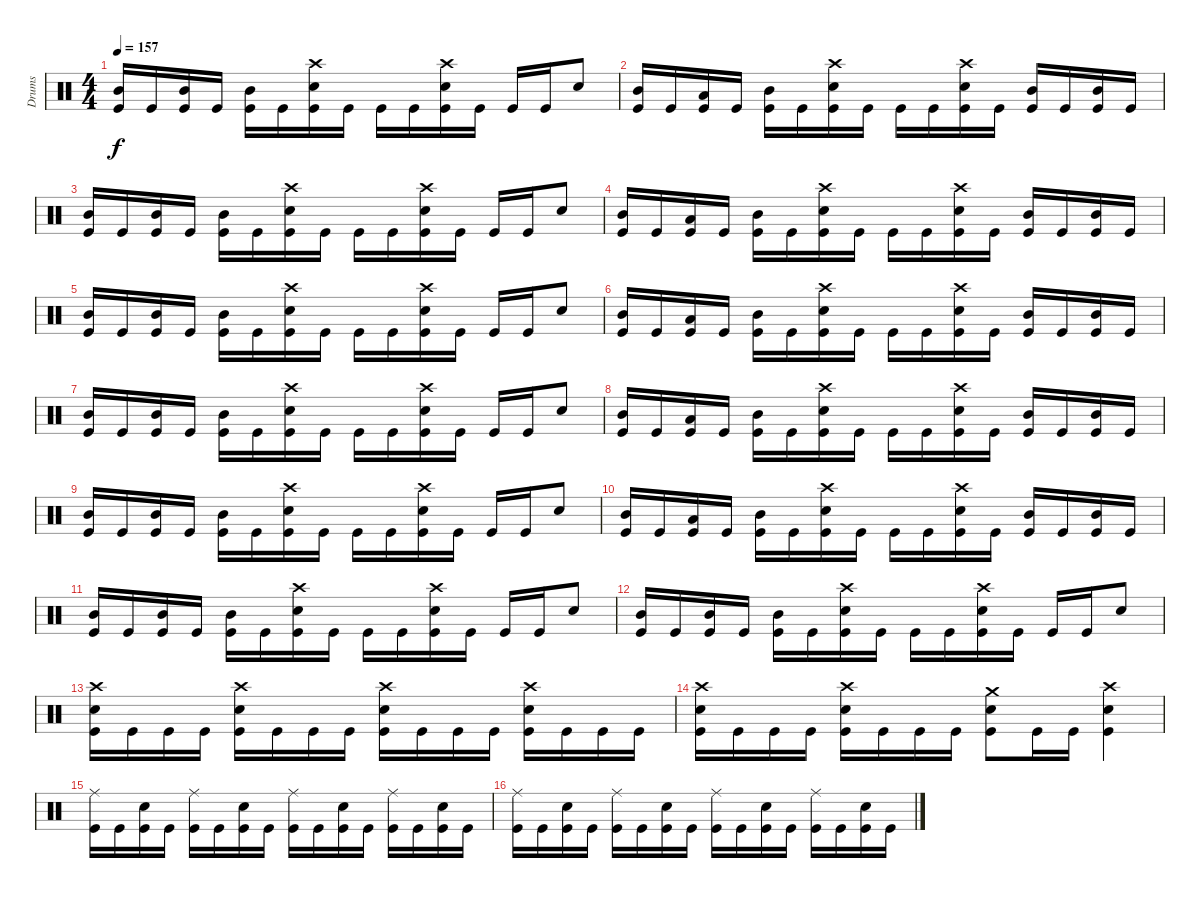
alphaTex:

\track ("Drums" "Drums") {instrument percussion}
\staff {score}
\articulation defaults
\ts (4 4)
\tempo 157
\clef neutral
\ks c
("Mid Tom (hit)" "Kick (hit)").16{dy f} "Kick (hit)".16 ("Mid Tom (hit)" "Kick (hit)").16 "Kick (hit)".16 ("Mid Tom (hit)" "Kick (hit)").16 "Kick (hit)".16 ("Snare (hit) 2" "Crash high (hit)" "Kick (hit)").16 "Kick (hit)".16 "Kick (hit)".16 "Kick (hit)".16 ("Snare (hit) 2" "Crash high (hit)" "Kick (hit)").16 "Kick (hit)".16 "Kick (hit)".16 "Kick (hit)".16 "Snare (hit) 2".8 |
("Mid Tom (hit)" "Kick (hit)").16 "Kick (hit)".16 ("Low Tom (hit)" "Kick (hit)").16 "Kick (hit)".16 ("Mid Tom (hit)" "Kick (hit)").16 "Kick (hit)".16 ("Snare (hit) 2" "Crash high (hit)" "Kick (hit)").16 "Kick (hit)".16 "Kick (hit)".16 "Kick (hit)".16 ("Snare (hit) 2" "Crash high (hit)" "Kick (hit)").16 "Kick (hit)".16 ("Mid Tom (hit)" "Kick (hit)").16 "Kick (hit)".16 ("Mid Tom (hit)" "Kick (hit)").16 "Kick (hit)".16 |
("Mid Tom (hit)" "Kick (hit)").16 "Kick (hit)".16 ("Mid Tom (hit)" "Kick (hit)").16 "Kick (hit)".16 ("Mid Tom (hit)" "Kick (hit)").16 "Kick (hit)".16 ("Snare (hit) 2" "Crash high (hit)" "Kick (hit)").16 "Kick (hit)".16 "Kick (hit)".16 "Kick (hit)".16 ("Snare (hit) 2" "Crash high (hit)" "Kick (hit)").16 "Kick (hit)".16 "Kick (hit)".16 "Kick (hit)".16 "Snare (hit) 2".8 |
("Mid Tom (hit)" "Kick (hit)").16 "Kick (hit)".16 ("Low Tom (hit)" "Kick (hit)").16 "Kick (hit)".16 ("Mid Tom (hit)" "Kick (hit)").16 "Kick (hit)".16 ("Snare (hit) 2" "Crash high (hit)" "Kick (hit)").16 "Kick (hit)".16 "Kick (hit)".16 "Kick (hit)".16 ("Snare (hit) 2" "Crash high (hit)" "Kick (hit)").16 "Kick (hit)".16 ("Mid Tom (hit)" "Kick (hit)").16 "Kick (hit)".16 ("Mid Tom (hit)" "Kick (hit)").16 "Kick (hit)".16 |
("Mid Tom (hit)" "Kick (hit)").16 "Kick (hit)".16 ("Mid Tom (hit)" "Kick (hit)").16 "Kick (hit)".16 ("Mid Tom (hit)" "Kick (hit)").16 "Kick (hit)".16 ("Snare (hit) 2" "Crash high (hit)" "Kick (hit)").16 "Kick (hit)".16 "Kick (hit)".16 "Kick (hit)".16 ("Snare (hit) 2" "Crash high (hit)" "Kick (hit)").16 "Kick (hit)".16 "Kick (hit)".16 "Kick (hit)".16 "Snare (hit) 2".8 |
("Mid Tom (hit)" "Kick (hit)").16 "Kick (hit)".16 ("Low Tom (hit)" "Kick (hit)").16 "Kick (hit)".16 ("Mid Tom (hit)" "Kick (hit)").16 "Kick (hit)".16 ("Snare (hit) 2" "Crash high (hit)" "Kick (hit)").16 "Kick (hit)".16 "Kick (hit)".16 "Kick (hit)".16 ("Snare (hit) 2" "Crash high (hit)" "Kick (hit)").16 "Kick (hit)".16 ("Mid Tom (hit)" "Kick (hit)").16 "Kick (hit)".16 ("Mid Tom (hit)" "Kick (hit)").16 "Kick (hit)".16 |
("Mid Tom (hit)" "Kick (hit)").16 "Kick (hit)".16 ("Mid Tom (hit)" "Kick (hit)").16 "Kick (hit)".16 ("Mid Tom (hit)" "Kick (hit)").16 "Kick (hit)".16 ("Snare (hit) 2" "Crash high (hit)" "Kick (hit)").16 "Kick (hit)".16 "Kick (hit)".16 "Kick (hit)".16 ("Snare (hit) 2" "Crash high (hit)" "Kick (hit)").16 "Kick (hit)".16 "Kick (hit)".16 "Kick (hit)".16 "Snare (hit) 2".8 |
("Mid Tom (hit)" "Kick (hit)").16 "Kick (hit)".16 ("Low Tom (hit)" "Kick (hit)").16 "Kick (hit)".16 ("Mid Tom (hit)" "Kick (hit)").16 "Kick (hit)".16 ("Snare (hit) 2" "Crash high (hit)" "Kick (hit)").16 "Kick (hit)".16 "Kick (hit)".16 "Kick (hit)".16 ("Snare (hit) 2" "Crash high (hit)" "Kick (hit)").16 "Kick (hit)".16 ("Mid Tom (hit)" "Kick (hit)").16 "Kick (hit)".16 ("Mid Tom (hit)" "Kick (hit)").16 "Kick (hit)".16 |
("Mid Tom (hit)" "Kick (hit)").16 "Kick (hit)".16 ("Mid Tom (hit)" "Kick (hit)").16 "Kick (hit)".16 ("Mid Tom (hit)" "Kick (hit)").16 "Kick (hit)".16 ("Snare (hit) 2" "Crash high (hit)" "Kick (hit)").16 "Kick (hit)".16 "Kick (hit)".16 "Kick (hit)".16 ("Snare (hit) 2" "Crash high (hit)" "Kick (hit)").16 "Kick (hit)".16 "Kick (hit)".16 "Kick (hit)".16 "Snare (hit) 2".8 |
("Mid Tom (hit)" "Kick (hit)").16 "Kick (hit)".16 ("Low Tom (hit)" "Kick (hit)").16 "Kick (hit)".16 ("Mid Tom (hit)" "Kick (hit)").16 "Kick (hit)".16 ("Snare (hit) 2" "Crash high (hit)" "Kick (hit)").16 "Kick (hit)".16 "Kick (hit)".16 "Kick (hit)".16 ("Snare (hit) 2" "Crash high (hit)" "Kick (hit)").16 "Kick (hit)".16 ("Mid Tom (hit)" "Kick (hit)").16 "Kick (hit)".16 ("Mid Tom (hit)" "Kick (hit)").16 "Kick (hit)".16 |
("Mid Tom (hit)" "Kick (hit)").16 "Kick (hit)".16 ("Mid Tom (hit)" "Kick (hit)").16 "Kick (hit)".16 ("Mid Tom (hit)" "Kick (hit)").16 "Kick (hit)".16 ("Snare (hit) 2" "Crash high (hit)" "Kick (hit)").16 "Kick (hit)".16 "Kick (hit)".16 "Kick (hit)".16 ("Snare (hit) 2" "Crash high (hit)" "Kick (hit)").16 "Kick (hit)".16 "Kick (hit)".16 "Kick (hit)".16 "Snare (hit) 2".8 |
("Mid Tom (hit)" "Kick (hit)").16 "Kick (hit)".16 ("Mid Tom (hit)" "Kick (hit)").16 "Kick (hit)".16 ("Mid Tom (hit)" "Kick (hit)").16 "Kick (hit)".16 ("Snare (hit) 2" "Crash high (hit)" "Kick (hit)").16 "Kick (hit)".16 "Kick (hit)".16 "Kick (hit)".16 ("Snare (hit) 2" "Crash high (hit)" "Kick (hit)").16 "Kick (hit)".16 "Kick (hit)".16 "Kick (hit)".16 "Snare (hit) 2".8 |
("Snare (hit) 2" "Crash high (hit)" "Kick (hit)").16 "Kick (hit)".16 "Kick (hit)".16 "Kick (hit)".16 ("Snare (hit) 2" "Crash high (hit)" "Kick (hit)").16 "Kick (hit)".16 "Kick (hit)".16 "Kick (hit)".16 ("Snare (hit) 2" "Crash high (hit)" "Kick (hit)").16 "Kick (hit)".16 "Kick (hit)".16 "Kick (hit)".16 ("Snare (hit) 2" "Crash high (hit)" "Kick (hit)").16 "Kick (hit)".16 "Kick (hit)".16 "Kick (hit)".16 |
("Snare (hit) 2" "Crash high (hit)" "Kick (hit)").16 "Kick (hit)".16 "Kick (hit)".16 "Kick (hit)".16 ("Snare (hit) 2" "Crash high (hit)" "Kick (hit)").16 "Kick (hit)".16 "Kick (hit)".16 "Kick (hit)".16 ("Snare (hit) 2" "Crash medium (hit)" "Kick (hit)").8 "Kick (hit)".16 "Kick (hit)".16 ("Snare (hit) 2" "Crash high (hit)" "Kick (hit)").4 |
("Ride (middle)" "Kick (hit)").16 "Kick (hit)".16 ("Snare (hit) 2" "Kick (hit)").16 "Kick (hit)".16 ("Ride (middle)" "Kick (hit)").16 "Kick (hit)".16 ("Snare (hit) 2" "Kick (hit)").16 "Kick (hit)".16 ("Ride (middle)" "Kick (hit)").16 "Kick (hit)".16 ("Snare (hit) 2" "Kick (hit)").16 "Kick (hit)".16 ("Ride (middle)" "Kick (hit)").16 "Kick (hit)".16 ("Snare (hit) 2" "Kick (hit)").16 "Kick (hit)".16 |
("Ride (middle)" "Kick (hit)").16 "Kick (hit)".16 ("Snare (hit) 2" "Kick (hit)").16 "Kick (hit)".16 ("Ride (middle)" "Kick (hit)").16 "Kick (hit)".16 ("Snare (hit) 2" "Kick (hit)").16 "Kick (hit)".16 ("Ride (middle)" "Kick (hit)").16 "Kick (hit)".16 ("Snare (hit) 2" "Kick (hit)").16 "Kick (hit)".16 ("Ride (middle)" "Kick (hit)").16 "Kick (hit)".16 ("Snare (hit) 2" "Kick (hit)").16 "Kick (hit)".16
